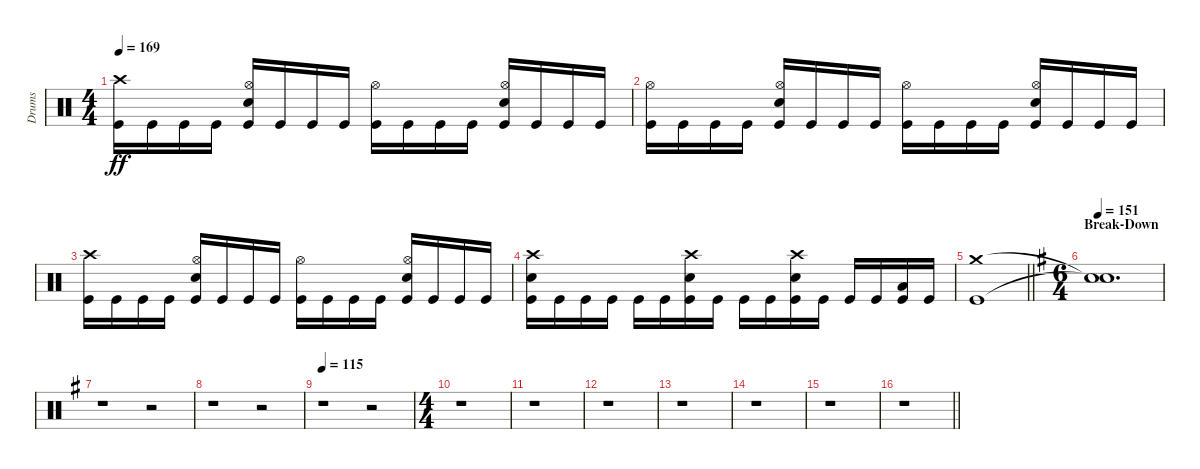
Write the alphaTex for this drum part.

\track ("Drums" "Drums") {instrument percussion}
\staff {score}
\articulation defaults
\ts (4 4)
\tempo 169
\clef neutral
\ks c
("Crash high (hit)" "Kick (hit)").16{dy ff} "Kick (hit)".16 "Kick (hit)".16 "Kick (hit)".16 ("Hi-Hat (open)" "Electric Snare (hit)" "Kick (hit)").16 "Kick (hit)".16 "Kick (hit)".16 "Kick (hit)".16 ("Hi-Hat (open)" "Kick (hit)").16 "Kick (hit)".16 "Kick (hit)".16 "Kick (hit)".16 ("Hi-Hat (open)" "Electric Snare (hit)" "Kick (hit)").16 "Kick (hit)".16 "Kick (hit)".16 "Kick (hit)".16 |
("Hi-Hat (open)" "Kick (hit)").16 "Kick (hit)".16 "Kick (hit)".16 "Kick (hit)".16 ("Hi-Hat (open)" "Electric Snare (hit)" "Kick (hit)").16 "Kick (hit)".16 "Kick (hit)".16 "Kick (hit)".16 ("Hi-Hat (open)" "Kick (hit)").16 "Kick (hit)".16 "Kick (hit)".16 "Kick (hit)".16 ("Hi-Hat (open)" "Electric Snare (hit)" "Kick (hit)").16 "Kick (hit)".16 "Kick (hit)".16 "Kick (hit)".16 |
("Crash high (hit)" "Kick (hit)").16 "Kick (hit)".16 "Kick (hit)".16 "Kick (hit)".16 ("Hi-Hat (open)" "Electric Snare (hit)" "Kick (hit)").16 "Kick (hit)".16 "Kick (hit)".16 "Kick (hit)".16 ("Hi-Hat (open)" "Kick (hit)").16 "Kick (hit)".16 "Kick (hit)".16 "Kick (hit)".16 ("Hi-Hat (open)" "Electric Snare (hit)" "Kick (hit)").16 "Kick (hit)".16 "Kick (hit)".16 "Kick (hit)".16 |
("Crash high (hit)" "Electric Snare (hit)" "Kick (hit)").16 "Kick (hit)".16 "Kick (hit)".16 "Kick (hit)".16 "Kick (hit)".16 "Kick (hit)".16 ("Crash high (hit)" "Electric Snare (hit)" "Kick (hit)").16 "Kick (hit)".16 "Kick (hit)".16 "Kick (hit)".16 ("Crash high (hit)" "Electric Snare (hit)" "Kick (hit)").16 "Kick (hit)".16 "Kick (hit)".16 "Kick (hit)".16 ("Low Tom (hit)" "Kick (hit)").16 "Kick (hit)".16 |
\barLineRight lightlight
("Crash medium (hit)" "Kick (hit)").1 |
\ts (6 4)
\section ("" "Break-Down")
\tempo 151
\ks g
("Snare (hit)"{t} "Snare (hit)"{t}).1{d} |
r.1 r.2 |
r.1 r.2 |
\tempo 115
r.1 r.2 |
\ts (4 4)
r.1 |
r.1 |
r.1 |
r.1 |
r.1 |
r.1 |
\barLineRight lightlight
r.1
